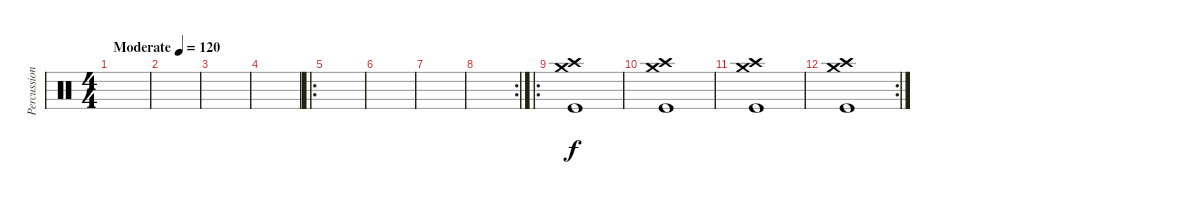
\track ("Percussion" "Percussion") {instrument percussion}
\staff {score}
\articulation defaults
\ts (4 4)
\tempo (120 "Moderate")
\clef neutral
\ks c
|
|
|
|
\ro
|
|
|
\rc 2
|
\ro
("Crash medium (hit)" "Crash high (hit)" "Kick (hit)").1 |
("Crash medium (hit)" "Crash high (hit)" "Kick (hit)").1 |
("Crash medium (hit)" "Crash high (hit)" "Kick (hit)").1 |
\rc 2
("Crash medium (hit)" "Crash high (hit)" "Kick (hit)").1
